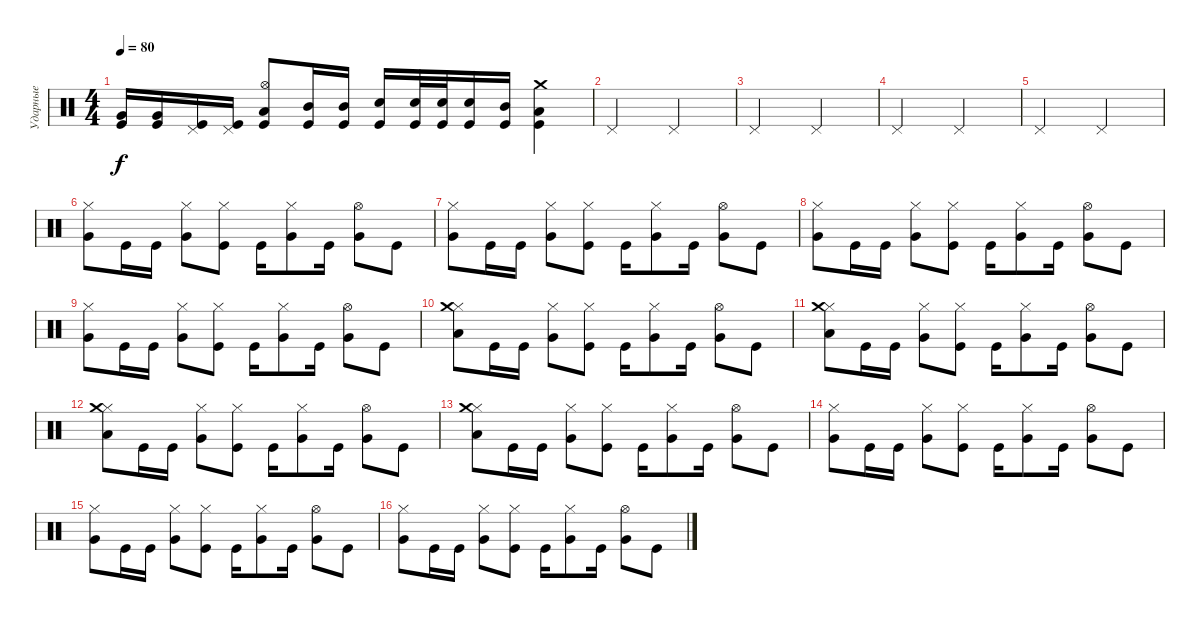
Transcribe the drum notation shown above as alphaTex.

\track ("Ударные" "Ударные") {instrument percussion}
\staff {score}
\articulation defaults
\ts (4 4)
\tempo 80
\clef neutral
\ks c
("Very Low Tom (hit)" "Kick (hit)").16{dy f} ("Very Low Tom (hit)" "Kick (hit)").16 ("Pedal Hi-Hat (hit)" "Kick (hit)").16 ("Pedal Hi-Hat (hit)" "Kick (hit)").16 ("Hi-Hat (open)" "Low Tom (hit)" "Kick (hit)").8 ("Mid Tom (hit)" "Kick (hit)").16 ("Mid Tom (hit)" "Kick (hit)").16 ("Electric Snare (hit)" "Kick (hit)").16 ("Electric Snare (hit)" "Kick (hit)").32 ("Electric Snare (hit)" "Kick (hit)").32 ("Electric Snare (hit)" "Kick (hit)").16 ("Mid Tom (hit)" "Kick (hit)").16 ("Crash medium (hit)" "Low Tom (hit)" "Kick (hit)").4 |
"Pedal Hi-Hat (hit)".2 "Pedal Hi-Hat (hit)".2 |
"Pedal Hi-Hat (hit)".2 "Pedal Hi-Hat (hit)".2 |
"Pedal Hi-Hat (hit)".2 "Pedal Hi-Hat (hit)".2 |
"Pedal Hi-Hat (hit)".2 "Pedal Hi-Hat (hit)".2 |
("Hi-Hat (closed)" "Very Low Tom (hit)").8 "Kick (hit)".16 "Kick (hit)".16 ("Hi-Hat (closed)" "Very Low Tom (hit)").8 ("Hi-Hat (closed)" "Kick (hit)").8 "Kick (hit)".16 ("Hi-Hat (closed)" "Very Low Tom (hit)").8 "Kick (hit)".16 ("Hi-Hat (open)" "Very Low Tom (hit)").8 "Kick (hit)".8 |
("Hi-Hat (closed)" "Very Low Tom (hit)").8 "Kick (hit)".16 "Kick (hit)".16 ("Hi-Hat (closed)" "Very Low Tom (hit)").8 ("Hi-Hat (closed)" "Kick (hit)").8 "Kick (hit)".16 ("Hi-Hat (closed)" "Very Low Tom (hit)").8 "Kick (hit)".16 ("Hi-Hat (open)" "Very Low Tom (hit)").8 "Kick (hit)".8 |
("Hi-Hat (closed)" "Very Low Tom (hit)").8 "Kick (hit)".16 "Kick (hit)".16 ("Hi-Hat (closed)" "Very Low Tom (hit)").8 ("Hi-Hat (closed)" "Kick (hit)").8 "Kick (hit)".16 ("Hi-Hat (closed)" "Very Low Tom (hit)").8 "Kick (hit)".16 ("Hi-Hat (open)" "Very Low Tom (hit)").8 "Kick (hit)".8 |
("Hi-Hat (closed)" "Very Low Tom (hit)").8 "Kick (hit)".16 "Kick (hit)".16 ("Hi-Hat (closed)" "Very Low Tom (hit)").8 ("Hi-Hat (closed)" "Kick (hit)").8 "Kick (hit)".16 ("Hi-Hat (closed)" "Very Low Tom (hit)").8 "Kick (hit)".16 ("Hi-Hat (open)" "Very Low Tom (hit)").8 "Kick (hit)".8 |
("Hi-Hat (closed)" "Crash medium (hit)" "Low Tom (hit)").8 "Kick (hit)".16 "Kick (hit)".16 ("Hi-Hat (closed)" "Very Low Tom (hit)").8 ("Hi-Hat (closed)" "Kick (hit)").8 "Kick (hit)".16 ("Hi-Hat (closed)" "Very Low Tom (hit)").8 "Kick (hit)".16 ("Hi-Hat (open)" "Very Low Tom (hit)").8 "Kick (hit)".8 |
("Hi-Hat (closed)" "Crash medium (hit)" "Low Tom (hit)").8 "Kick (hit)".16 "Kick (hit)".16 ("Hi-Hat (closed)" "Very Low Tom (hit)").8 ("Hi-Hat (closed)" "Kick (hit)").8 "Kick (hit)".16 ("Hi-Hat (closed)" "Very Low Tom (hit)").8 "Kick (hit)".16 ("Hi-Hat (open)" "Very Low Tom (hit)").8 "Kick (hit)".8 |
("Hi-Hat (closed)" "Crash medium (hit)" "Low Tom (hit)").8 "Kick (hit)".16 "Kick (hit)".16 ("Hi-Hat (closed)" "Very Low Tom (hit)").8 ("Hi-Hat (closed)" "Kick (hit)").8 "Kick (hit)".16 ("Hi-Hat (closed)" "Very Low Tom (hit)").8 "Kick (hit)".16 ("Hi-Hat (open)" "Very Low Tom (hit)").8 "Kick (hit)".8 |
("Hi-Hat (closed)" "Crash medium (hit)" "Low Tom (hit)").8 "Kick (hit)".16 "Kick (hit)".16 ("Hi-Hat (closed)" "Very Low Tom (hit)").8 ("Hi-Hat (closed)" "Kick (hit)").8 "Kick (hit)".16 ("Hi-Hat (closed)" "Very Low Tom (hit)").8 "Kick (hit)".16 ("Hi-Hat (open)" "Very Low Tom (hit)").8 "Kick (hit)".8 |
("Hi-Hat (closed)" "Very Low Tom (hit)").8 "Kick (hit)".16 "Kick (hit)".16 ("Hi-Hat (closed)" "Very Low Tom (hit)").8 ("Hi-Hat (closed)" "Kick (hit)").8 "Kick (hit)".16 ("Hi-Hat (closed)" "Very Low Tom (hit)").8 "Kick (hit)".16 ("Hi-Hat (open)" "Very Low Tom (hit)").8 "Kick (hit)".8 |
("Hi-Hat (closed)" "Very Low Tom (hit)").8 "Kick (hit)".16 "Kick (hit)".16 ("Hi-Hat (closed)" "Very Low Tom (hit)").8 ("Hi-Hat (closed)" "Kick (hit)").8 "Kick (hit)".16 ("Hi-Hat (closed)" "Very Low Tom (hit)").8 "Kick (hit)".16 ("Hi-Hat (open)" "Very Low Tom (hit)").8 "Kick (hit)".8 |
("Hi-Hat (closed)" "Very Low Tom (hit)").8 "Kick (hit)".16 "Kick (hit)".16 ("Hi-Hat (closed)" "Very Low Tom (hit)").8 ("Hi-Hat (closed)" "Kick (hit)").8 "Kick (hit)".16 ("Hi-Hat (closed)" "Very Low Tom (hit)").8 "Kick (hit)".16 ("Hi-Hat (open)" "Very Low Tom (hit)").8 "Kick (hit)".8
